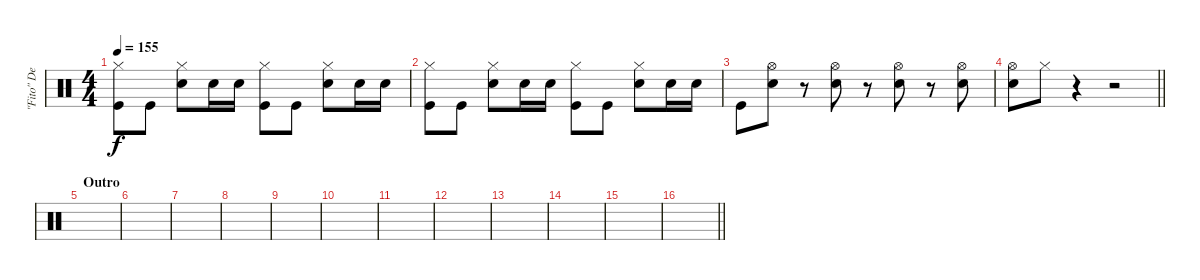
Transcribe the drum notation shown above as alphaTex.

\track ("\"Fito\" De La Parra" "\"Fito\" De ") {instrument percussion}
\staff {score}
\articulation defaults
\ts (4 4)
\tempo 155
\clef neutral
\ks c
("Hi-Hat (closed)" "Kick (hit)").8{dy f} "Kick (hit)".8 ("Hi-Hat (closed)" "Snare (hit) 2").8 "Snare (hit) 2".16 "Snare (hit) 2".16 ("Hi-Hat (closed)" "Kick (hit)").8 "Kick (hit)".8 ("Hi-Hat (closed)" "Snare (hit) 2").8 "Snare (hit) 2".16 "Snare (hit) 2".16 |
("Hi-Hat (closed)" "Kick (hit)").8 "Kick (hit)".8 ("Hi-Hat (closed)" "Snare (hit) 2").8 "Snare (hit) 2".16 "Snare (hit) 2".16 ("Hi-Hat (closed)" "Kick (hit)").8 "Kick (hit)".8 ("Hi-Hat (closed)" "Snare (hit) 2").8 "Snare (hit) 2".16 "Snare (hit) 2".16 |
"Kick (hit)".8 ("Hi-Hat (open)" "Snare (hit) 2").8 r.8 ("Hi-Hat (open)" "Snare (hit) 2").8 r.8 ("Hi-Hat (open)" "Snare (hit) 2").8 r.8 ("Hi-Hat (open)" "Snare (hit) 2").8 |
\barLineRight lightlight
("Hi-Hat (open)" "Snare (hit) 2").8 "Hi-Hat (closed)".8 r.4 r.2 |
\section ("" "Outro")
|
|
|
|
|
|
|
|
|
|
|
\barLineRight lightlight
